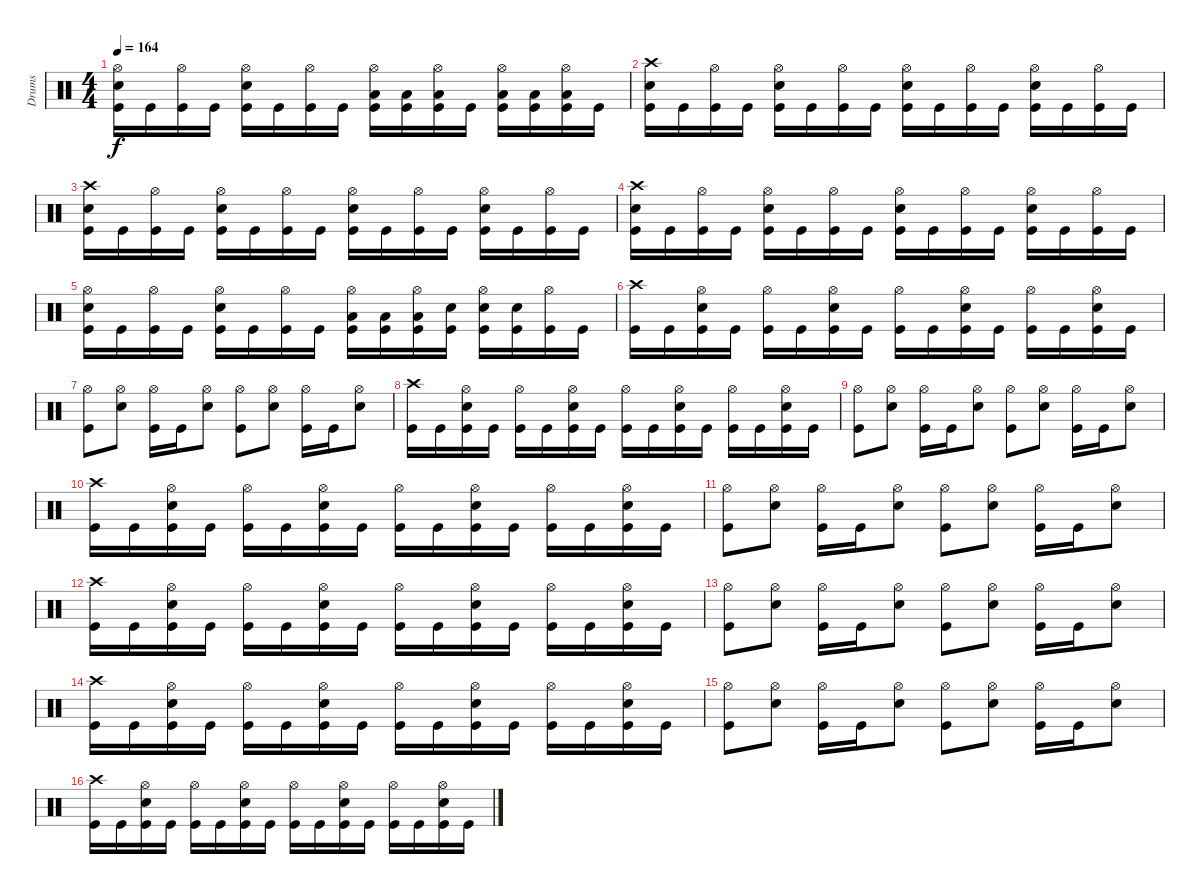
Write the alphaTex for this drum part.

\track ("Drums" "Drums") {instrument percussion}
\staff {score}
\articulation defaults
\ts (4 4)
\tempo 164
\clef neutral
\ks c
("Hi-Hat (open)" "Snare (hit) 2" "Kick (hit)").16{dy f} "Kick (hit)".16 ("Hi-Hat (open)" "Kick (hit)").16 "Kick (hit)".16 ("Hi-Hat (open)" "Snare (hit) 2" "Kick (hit)").16 "Kick (hit)".16 ("Hi-Hat (open)" "Kick (hit)").16 "Kick (hit)".16 ("Hi-Hat (open)" "Low Floor Tom (hit)" "Kick (hit)").16 ("Low Floor Tom (hit)" "Kick (hit)").16 ("Hi-Hat (open)" "Low Floor Tom (hit)" "Kick (hit)").16 "Kick (hit)".16 ("Hi-Hat (open)" "Low Floor Tom (hit)" "Kick (hit)").16 ("Low Floor Tom (hit)" "Kick (hit)").16 ("Hi-Hat (open)" "Low Floor Tom (hit)" "Kick (hit)").16 "Kick (hit)".16 |
("Crash high (hit)" "Snare (hit) 2" "Kick (hit)").16 "Kick (hit)".16 ("Hi-Hat (open)" "Kick (hit)").16 "Kick (hit)".16 ("Hi-Hat (open)" "Snare (hit) 2" "Kick (hit)").16 "Kick (hit)".16 ("Hi-Hat (open)" "Kick (hit)").16 "Kick (hit)".16 ("Hi-Hat (open)" "Snare (hit) 2" "Kick (hit)").16 "Kick (hit)".16 ("Hi-Hat (open)" "Kick (hit)").16 "Kick (hit)".16 ("Hi-Hat (open)" "Snare (hit) 2" "Kick (hit)").16 "Kick (hit)".16 ("Hi-Hat (open)" "Kick (hit)").16 "Kick (hit)".16 |
("Crash high (hit)" "Snare (hit) 2" "Kick (hit)").16 "Kick (hit)".16 ("Hi-Hat (open)" "Kick (hit)").16 "Kick (hit)".16 ("Hi-Hat (open)" "Snare (hit) 2" "Kick (hit)").16 "Kick (hit)".16 ("Hi-Hat (open)" "Kick (hit)").16 "Kick (hit)".16 ("Hi-Hat (open)" "Snare (hit) 2" "Kick (hit)").16 "Kick (hit)".16 ("Hi-Hat (open)" "Kick (hit)").16 "Kick (hit)".16 ("Hi-Hat (open)" "Snare (hit) 2" "Kick (hit)").16 "Kick (hit)".16 ("Hi-Hat (open)" "Kick (hit)").16 "Kick (hit)".16 |
("Crash high (hit)" "Snare (hit) 2" "Kick (hit)").16 "Kick (hit)".16 ("Hi-Hat (open)" "Kick (hit)").16 "Kick (hit)".16 ("Hi-Hat (open)" "Snare (hit) 2" "Kick (hit)").16 "Kick (hit)".16 ("Hi-Hat (open)" "Kick (hit)").16 "Kick (hit)".16 ("Hi-Hat (open)" "Snare (hit) 2" "Kick (hit)").16 "Kick (hit)".16 ("Hi-Hat (open)" "Kick (hit)").16 "Kick (hit)".16 ("Hi-Hat (open)" "Snare (hit) 2" "Kick (hit)").16 "Kick (hit)".16 ("Hi-Hat (open)" "Kick (hit)").16 "Kick (hit)".16 |
("Hi-Hat (open)" "Snare (hit) 2" "Kick (hit)").16 "Kick (hit)".16 ("Hi-Hat (open)" "Kick (hit)").16 "Kick (hit)".16 ("Hi-Hat (open)" "Snare (hit) 2" "Kick (hit)").16 "Kick (hit)".16 ("Hi-Hat (open)" "Kick (hit)").16 "Kick (hit)".16 ("Hi-Hat (open)" "Low Floor Tom (hit)" "Kick (hit)").16 ("Low Floor Tom (hit)" "Kick (hit)").16 ("Hi-Hat (open)" "Low Floor Tom (hit)" "Kick (hit)").16 ("Snare (hit) 2" "Kick (hit)").16 ("Hi-Hat (open)" "Snare (hit) 2" "Kick (hit)").16 ("Snare (hit) 2" "Kick (hit)").16 ("Hi-Hat (open)" "Kick (hit)").16 "Kick (hit)".16 |
("Crash high (hit)" "Kick (hit)").16 "Kick (hit)".16 ("Hi-Hat (open)" "Snare (hit) 2" "Kick (hit)").16 "Kick (hit)".16 ("Hi-Hat (open)" "Kick (hit)").16 "Kick (hit)".16 ("Hi-Hat (open)" "Snare (hit) 2" "Kick (hit)").16 "Kick (hit)".16 ("Hi-Hat (open)" "Kick (hit)").16 "Kick (hit)".16 ("Hi-Hat (open)" "Snare (hit) 2" "Kick (hit)").16 "Kick (hit)".16 ("Hi-Hat (open)" "Kick (hit)").16 "Kick (hit)".16 ("Hi-Hat (open)" "Snare (hit) 2" "Kick (hit)").16 "Kick (hit)".16 |
("Hi-Hat (open)" "Kick (hit)").8 ("Hi-Hat (open)" "Snare (hit) 2").8 ("Hi-Hat (open)" "Kick (hit)").16 "Kick (hit)".16 ("Hi-Hat (open)" "Snare (hit) 2").8 ("Hi-Hat (open)" "Kick (hit)").8 ("Hi-Hat (open)" "Snare (hit) 2").8 ("Hi-Hat (open)" "Kick (hit)").16 "Kick (hit)".16 ("Hi-Hat (open)" "Snare (hit) 2").8 |
("Crash high (hit)" "Kick (hit)").16 "Kick (hit)".16 ("Hi-Hat (open)" "Snare (hit) 2" "Kick (hit)").16 "Kick (hit)".16 ("Hi-Hat (open)" "Kick (hit)").16 "Kick (hit)".16 ("Hi-Hat (open)" "Snare (hit) 2" "Kick (hit)").16 "Kick (hit)".16 ("Hi-Hat (open)" "Kick (hit)").16 "Kick (hit)".16 ("Hi-Hat (open)" "Snare (hit) 2" "Kick (hit)").16 "Kick (hit)".16 ("Hi-Hat (open)" "Kick (hit)").16 "Kick (hit)".16 ("Hi-Hat (open)" "Snare (hit) 2" "Kick (hit)").16 "Kick (hit)".16 |
("Hi-Hat (open)" "Kick (hit)").8 ("Hi-Hat (open)" "Snare (hit) 2").8 ("Hi-Hat (open)" "Kick (hit)").16 "Kick (hit)".16 ("Hi-Hat (open)" "Snare (hit) 2").8 ("Hi-Hat (open)" "Kick (hit)").8 ("Hi-Hat (open)" "Snare (hit) 2").8 ("Hi-Hat (open)" "Kick (hit)").16 "Kick (hit)".16 ("Hi-Hat (open)" "Snare (hit) 2").8 |
("Crash high (hit)" "Kick (hit)").16 "Kick (hit)".16 ("Hi-Hat (open)" "Snare (hit) 2" "Kick (hit)").16 "Kick (hit)".16 ("Hi-Hat (open)" "Kick (hit)").16 "Kick (hit)".16 ("Hi-Hat (open)" "Snare (hit) 2" "Kick (hit)").16 "Kick (hit)".16 ("Hi-Hat (open)" "Kick (hit)").16 "Kick (hit)".16 ("Hi-Hat (open)" "Snare (hit) 2" "Kick (hit)").16 "Kick (hit)".16 ("Hi-Hat (open)" "Kick (hit)").16 "Kick (hit)".16 ("Hi-Hat (open)" "Snare (hit) 2" "Kick (hit)").16 "Kick (hit)".16 |
("Hi-Hat (open)" "Kick (hit)").8 ("Hi-Hat (open)" "Snare (hit) 2").8 ("Hi-Hat (open)" "Kick (hit)").16 "Kick (hit)".16 ("Hi-Hat (open)" "Snare (hit) 2").8 ("Hi-Hat (open)" "Kick (hit)").8 ("Hi-Hat (open)" "Snare (hit) 2").8 ("Hi-Hat (open)" "Kick (hit)").16 "Kick (hit)".16 ("Hi-Hat (open)" "Snare (hit) 2").8 |
("Crash high (hit)" "Kick (hit)").16 "Kick (hit)".16 ("Hi-Hat (open)" "Snare (hit) 2" "Kick (hit)").16 "Kick (hit)".16 ("Hi-Hat (open)" "Kick (hit)").16 "Kick (hit)".16 ("Hi-Hat (open)" "Snare (hit) 2" "Kick (hit)").16 "Kick (hit)".16 ("Hi-Hat (open)" "Kick (hit)").16 "Kick (hit)".16 ("Hi-Hat (open)" "Snare (hit) 2" "Kick (hit)").16 "Kick (hit)".16 ("Hi-Hat (open)" "Kick (hit)").16 "Kick (hit)".16 ("Hi-Hat (open)" "Snare (hit) 2" "Kick (hit)").16 "Kick (hit)".16 |
("Hi-Hat (open)" "Kick (hit)").8 ("Hi-Hat (open)" "Snare (hit) 2").8 ("Hi-Hat (open)" "Kick (hit)").16 "Kick (hit)".16 ("Hi-Hat (open)" "Snare (hit) 2").8 ("Hi-Hat (open)" "Kick (hit)").8 ("Hi-Hat (open)" "Snare (hit) 2").8 ("Hi-Hat (open)" "Kick (hit)").16 "Kick (hit)".16 ("Hi-Hat (open)" "Snare (hit) 2").8 |
("Crash high (hit)" "Kick (hit)").16 "Kick (hit)".16 ("Hi-Hat (open)" "Snare (hit) 2" "Kick (hit)").16 "Kick (hit)".16 ("Hi-Hat (open)" "Kick (hit)").16 "Kick (hit)".16 ("Hi-Hat (open)" "Snare (hit) 2" "Kick (hit)").16 "Kick (hit)".16 ("Hi-Hat (open)" "Kick (hit)").16 "Kick (hit)".16 ("Hi-Hat (open)" "Snare (hit) 2" "Kick (hit)").16 "Kick (hit)".16 ("Hi-Hat (open)" "Kick (hit)").16 "Kick (hit)".16 ("Hi-Hat (open)" "Snare (hit) 2" "Kick (hit)").16 "Kick (hit)".16 |
("Hi-Hat (open)" "Kick (hit)").8 ("Hi-Hat (open)" "Snare (hit) 2").8 ("Hi-Hat (open)" "Kick (hit)").16 "Kick (hit)".16 ("Hi-Hat (open)" "Snare (hit) 2").8 ("Hi-Hat (open)" "Kick (hit)").8 ("Hi-Hat (open)" "Snare (hit) 2").8 ("Hi-Hat (open)" "Kick (hit)").16 "Kick (hit)".16 ("Hi-Hat (open)" "Snare (hit) 2").8 |
("Crash high (hit)" "Kick (hit)").16 "Kick (hit)".16 ("Hi-Hat (open)" "Snare (hit) 2" "Kick (hit)").16 "Kick (hit)".16 ("Hi-Hat (open)" "Kick (hit)").16 "Kick (hit)".16 ("Hi-Hat (open)" "Snare (hit) 2" "Kick (hit)").16 "Kick (hit)".16 ("Hi-Hat (open)" "Kick (hit)").16 "Kick (hit)".16 ("Hi-Hat (open)" "Snare (hit) 2" "Kick (hit)").16 "Kick (hit)".16 ("Hi-Hat (open)" "Kick (hit)").16 "Kick (hit)".16 ("Hi-Hat (open)" "Snare (hit) 2" "Kick (hit)").16 "Kick (hit)".16
